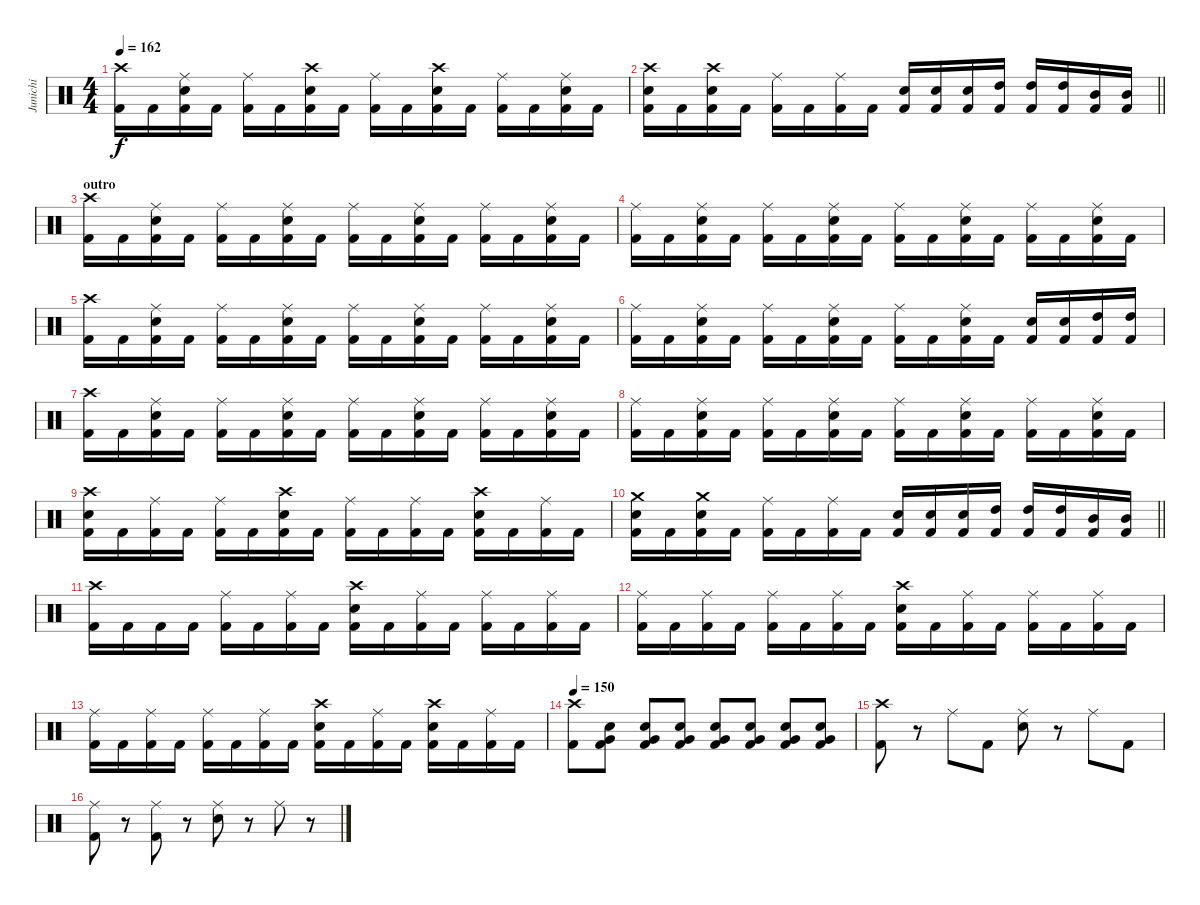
\track ("Junichi" "Junichi") {instrument percussion}
\staff {score}
\articulation defaults
\ts (4 4)
\tempo 162
\clef neutral
\ks c
("Crash high (hit)" "Kick (hit) 2").16{dy f} "Kick (hit) 2".16 ("Ride (middle)" "Electric Snare (hit)" "Kick (hit) 2").16 "Kick (hit) 2".16 ("Ride (middle)" "Kick (hit) 2").16 "Kick (hit) 2".16 ("Crash high (hit)" "Electric Snare (hit)" "Kick (hit) 2").16 "Kick (hit) 2".16 ("Ride (middle)" "Kick (hit) 2").16 "Kick (hit) 2".16 ("Crash high (hit)" "Electric Snare (hit)" "Kick (hit) 2").16 "Kick (hit) 2".16 ("Ride (middle)" "Kick (hit) 2").16 "Kick (hit) 2".16 ("Ride (middle)" "Electric Snare (hit)" "Kick (hit) 2").16 "Kick (hit) 2".16 |
\barLineRight lightlight
("Crash high (hit)" "Electric Snare (hit)" "Kick (hit) 2").16 "Kick (hit) 2".16 ("Crash high (hit)" "Electric Snare (hit)" "Kick (hit) 2").16 "Kick (hit) 2".16 ("Ride (middle)" "Kick (hit) 2").16 "Kick (hit) 2".16 ("Ride (middle)" "Kick (hit) 2").16 "Kick (hit) 2".16 ("Electric Snare (hit)" "Kick (hit) 2").16 ("Electric Snare (hit)" "Kick (hit) 2").16 ("Electric Snare (hit)" "Kick (hit) 2").16 ("High Tom (hit)" "Kick (hit) 2").16 ("High Tom (hit)" "Kick (hit) 2").16 ("High Tom (hit)" "Kick (hit) 2").16 ("Mid Tom (hit)" "Kick (hit) 2").16 ("Mid Tom (hit)" "Kick (hit) 2").16 |
\section ("" "outro")
("Crash high (hit)" "Kick (hit) 2").16 "Kick (hit) 2".16 ("Ride (middle)" "Electric Snare (hit)" "Kick (hit) 2").16 "Kick (hit) 2".16 ("Ride (middle)" "Kick (hit) 2").16 "Kick (hit) 2".16 ("Ride (middle)" "Electric Snare (hit)" "Kick (hit) 2").16 "Kick (hit) 2".16 ("Ride (middle)" "Kick (hit) 2").16 "Kick (hit) 2".16 ("Ride (middle)" "Electric Snare (hit)" "Kick (hit) 2").16 "Kick (hit) 2".16 ("Ride (middle)" "Kick (hit) 2").16 "Kick (hit) 2".16 ("Ride (middle)" "Electric Snare (hit)" "Kick (hit) 2").16 "Kick (hit) 2".16 |
("Ride (middle)" "Kick (hit) 2").16 "Kick (hit) 2".16 ("Ride (middle)" "Electric Snare (hit)" "Kick (hit) 2").16 "Kick (hit) 2".16 ("Ride (middle)" "Kick (hit) 2").16 "Kick (hit) 2".16 ("Ride (middle)" "Electric Snare (hit)" "Kick (hit) 2").16 "Kick (hit) 2".16 ("Ride (middle)" "Kick (hit) 2").16 "Kick (hit) 2".16 ("Ride (middle)" "Electric Snare (hit)" "Kick (hit) 2").16 "Kick (hit) 2".16 ("Ride (middle)" "Kick (hit) 2").16 "Kick (hit) 2".16 ("Ride (middle)" "Electric Snare (hit)" "Kick (hit) 2").16 "Kick (hit) 2".16 |
("Crash high (hit)" "Kick (hit) 2").16 "Kick (hit) 2".16 ("Ride (middle)" "Electric Snare (hit)" "Kick (hit) 2").16 "Kick (hit) 2".16 ("Ride (middle)" "Kick (hit) 2").16 "Kick (hit) 2".16 ("Ride (middle)" "Electric Snare (hit)" "Kick (hit) 2").16 "Kick (hit) 2".16 ("Ride (middle)" "Kick (hit) 2").16 "Kick (hit) 2".16 ("Ride (middle)" "Electric Snare (hit)" "Kick (hit) 2").16 "Kick (hit) 2".16 ("Ride (middle)" "Kick (hit) 2").16 "Kick (hit) 2".16 ("Ride (middle)" "Electric Snare (hit)" "Kick (hit) 2").16 "Kick (hit) 2".16 |
("Ride (middle)" "Kick (hit) 2").16 "Kick (hit) 2".16 ("Ride (middle)" "Electric Snare (hit)" "Kick (hit) 2").16 "Kick (hit) 2".16 ("Ride (middle)" "Kick (hit) 2").16 "Kick (hit) 2".16 ("Ride (middle)" "Electric Snare (hit)" "Kick (hit) 2").16 "Kick (hit) 2".16 ("Ride (middle)" "Kick (hit) 2").16 "Kick (hit) 2".16 ("Ride (middle)" "Electric Snare (hit)" "Kick (hit) 2").16 "Kick (hit) 2".16 ("Electric Snare (hit)" "Kick (hit) 2").16 ("Electric Snare (hit)" "Kick (hit) 2").16 ("High Tom (hit)" "Kick (hit) 2").16 ("High Tom (hit)" "Kick (hit) 2").16 |
("Crash high (hit)" "Kick (hit) 2").16 "Kick (hit) 2".16 ("Ride (middle)" "Electric Snare (hit)" "Kick (hit) 2").16 "Kick (hit) 2".16 ("Ride (middle)" "Kick (hit) 2").16 "Kick (hit) 2".16 ("Ride (middle)" "Electric Snare (hit)" "Kick (hit) 2").16 "Kick (hit) 2".16 ("Ride (middle)" "Kick (hit) 2").16 "Kick (hit) 2".16 ("Ride (middle)" "Electric Snare (hit)" "Kick (hit) 2").16 "Kick (hit) 2".16 ("Ride (middle)" "Kick (hit) 2").16 "Kick (hit) 2".16 ("Ride (middle)" "Electric Snare (hit)" "Kick (hit) 2").16 "Kick (hit) 2".16 |
("Ride (middle)" "Kick (hit) 2").16 "Kick (hit) 2".16 ("Ride (middle)" "Electric Snare (hit)" "Kick (hit) 2").16 "Kick (hit) 2".16 ("Ride (middle)" "Kick (hit) 2").16 "Kick (hit) 2".16 ("Ride (middle)" "Electric Snare (hit)" "Kick (hit) 2").16 "Kick (hit) 2".16 ("Ride (middle)" "Kick (hit) 2").16 "Kick (hit) 2".16 ("Ride (middle)" "Electric Snare (hit)" "Kick (hit) 2").16 "Kick (hit) 2".16 ("Ride (middle)" "Kick (hit) 2").16 "Kick (hit) 2".16 ("Ride (middle)" "Electric Snare (hit)" "Kick (hit) 2").16 "Kick (hit) 2".16 |
("Crash high (hit)" "Electric Snare (hit)" "Kick (hit) 2").16 "Kick (hit) 2".16 ("Ride (middle)" "Kick (hit) 2").16 "Kick (hit) 2".16 ("Ride (middle)" "Kick (hit) 2").16 "Kick (hit) 2".16 ("Crash high (hit)" "Electric Snare (hit)" "Kick (hit) 2").16 "Kick (hit) 2".16 ("Ride (middle)" "Kick (hit) 2").16 "Kick (hit) 2".16 ("Ride (middle)" "Kick (hit) 2").16 "Kick (hit) 2".16 ("Crash high (hit)" "Electric Snare (hit)" "Kick (hit) 2").16 "Kick (hit) 2".16 ("Ride (middle)" "Kick (hit) 2").16 "Kick (hit) 2".16 |
\barLineRight lightlight
("Crash medium (hit)" "Electric Snare (hit)" "Kick (hit) 2").16 "Kick (hit) 2".16 ("Crash medium (hit)" "Electric Snare (hit)" "Kick (hit) 2").16 "Kick (hit) 2".16 ("Ride (middle)" "Kick (hit) 2").16 "Kick (hit) 2".16 ("Ride (middle)" "Kick (hit) 2").16 "Kick (hit) 2".16 ("Electric Snare (hit)" "Kick (hit) 2").16 ("Electric Snare (hit)" "Kick (hit) 2").16 ("Electric Snare (hit)" "Kick (hit) 2").16 ("High Tom (hit)" "Kick (hit) 2").16 ("High Tom (hit)" "Kick (hit) 2").16 ("High Tom (hit)" "Kick (hit) 2").16 ("Mid Tom (hit)" "Kick (hit) 2").16 ("Mid Tom (hit)" "Kick (hit) 2").16 |
("Crash high (hit)" "Kick (hit) 2").16 "Kick (hit) 2".16 "Kick (hit) 2".16 "Kick (hit) 2".16 ("Ride (middle)" "Kick (hit) 2").16 "Kick (hit) 2".16 ("Ride (middle)" "Kick (hit) 2").16 "Kick (hit) 2".16 ("Crash high (hit)" "Electric Snare (hit)" "Kick (hit) 2").16 "Kick (hit) 2".16 ("Ride (middle)" "Kick (hit) 2").16 "Kick (hit) 2".16 ("Ride (middle)" "Kick (hit) 2").16 "Kick (hit) 2".16 ("Ride (middle)" "Kick (hit) 2").16 "Kick (hit) 2".16 |
("Ride (middle)" "Kick (hit) 2").16 "Kick (hit) 2".16 ("Ride (middle)" "Kick (hit) 2").16 "Kick (hit) 2".16 ("Ride (middle)" "Kick (hit) 2").16 "Kick (hit) 2".16 ("Ride (middle)" "Kick (hit) 2").16 "Kick (hit) 2".16 ("Crash high (hit)" "Electric Snare (hit)" "Kick (hit) 2").16 "Kick (hit) 2".16 ("Ride (middle)" "Kick (hit) 2").16 "Kick (hit) 2".16 ("Ride (middle)" "Kick (hit) 2").16 "Kick (hit) 2".16 ("Ride (middle)" "Kick (hit) 2").16 "Kick (hit) 2".16 |
("Ride (middle)" "Kick (hit) 2").16 "Kick (hit) 2".16 ("Ride (middle)" "Kick (hit) 2").16 "Kick (hit) 2".16 ("Ride (middle)" "Kick (hit) 2").16 "Kick (hit) 2".16 ("Ride (middle)" "Kick (hit) 2").16 "Kick (hit) 2".16 ("Crash high (hit)" "Electric Snare (hit)" "Kick (hit) 2").16 "Kick (hit) 2".16 ("Ride (middle)" "Kick (hit) 2").16 "Kick (hit) 2".16 ("Crash high (hit)" "Electric Snare (hit)" "Kick (hit) 2").16 "Kick (hit) 2".16 ("Ride (middle)" "Kick (hit) 2").16 "Kick (hit) 2".16 |
\tempo 147
\tempo 150
("Crash high (hit)" "Kick (hit) 2").8 ("Very Low Tom (hit)" "Electric Snare (hit)" "Kick (hit) 2").8 ("Very Low Tom (hit)" "Electric Snare (hit)" "Kick (hit) 2").8 ("Very Low Tom (hit)" "Electric Snare (hit)" "Kick (hit) 2").8 ("Very Low Tom (hit)" "Electric Snare (hit)" "Kick (hit) 2").8 ("Very Low Tom (hit)" "Electric Snare (hit)" "Kick (hit) 2").8 ("Very Low Tom (hit)" "Electric Snare (hit)" "Kick (hit) 2").8 ("Very Low Tom (hit)" "Electric Snare (hit)" "Kick (hit) 2").8 |
("Crash high (hit)" "Kick (hit) 2").8 r.8 "Ride (middle)".8 "Kick (hit) 2".8 ("Ride (middle)" "Electric Snare (hit)").8 r.8 "Ride (middle)".8 "Kick (hit) 2".8 |
("Ride (middle)" "Kick (hit) 2").8 r.8 ("Ride (middle)" "Kick (hit) 2").8 r.8 ("Ride (middle)" "Electric Snare (hit)").8 r.8 "Ride (middle)".8 r.8
